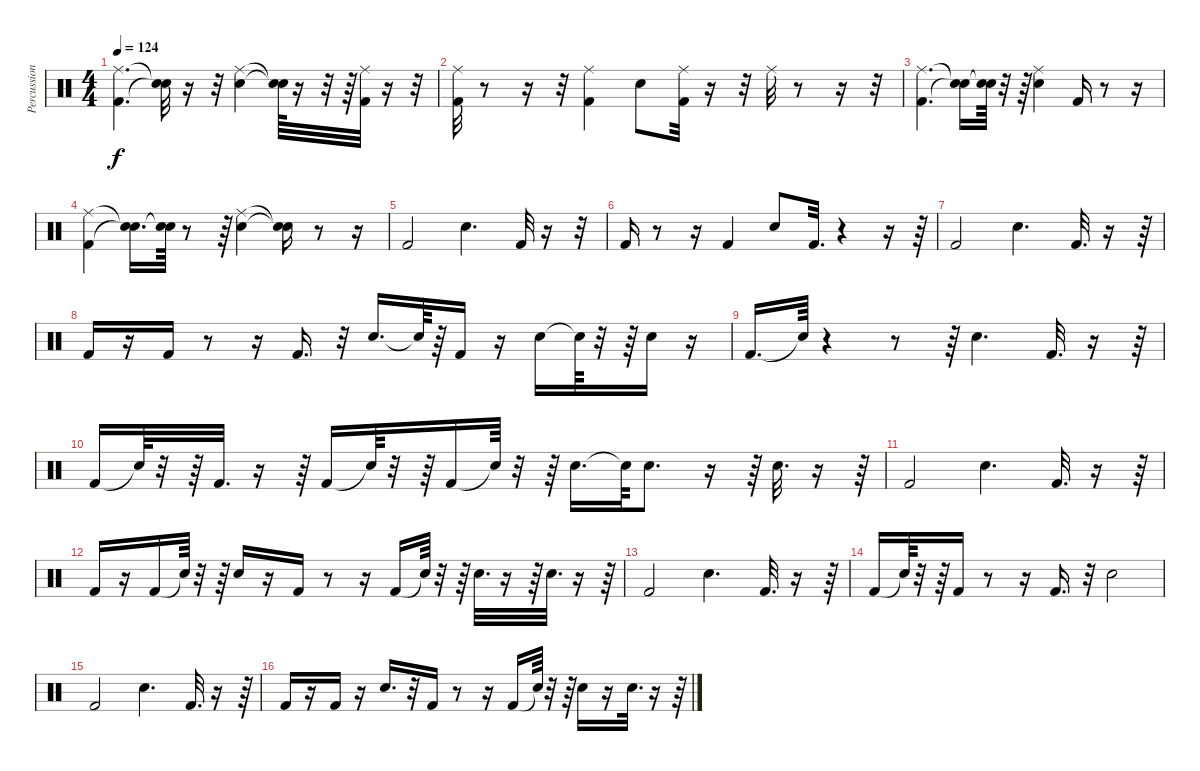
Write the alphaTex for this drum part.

\track ("Percussion" "Percussion") {instrument percussion}
\staff {score}
\articulation defaults
\ts (4 4)
\tempo 124
\clef neutral
\ks c
("Ride (middle)" "Kick (hit) 2").4{d dy f} ("Snare (hit)"{t} "Snare (hit)"{t}).32 r.16 r.32 ("Ride (middle)" "Electric Snare (hit)").4 ("Snare (hit)"{t} "Snare (hit)"{t}).64 r.16 r.32 r.64 ("Ride (middle)" "Kick (hit) 2").32 r.16 r.32 |
("Kick (hit) 2" "Ride (middle)").32 r.8 r.16 r.32 ("Kick (hit) 2" "Ride (middle)").4 "Electric Snare (hit)".8 ("Ride (middle)" "Kick (hit) 2").32 r.16 r.32 "Ride (middle)".32 r.8 r.16 r.32 |
("Ride (middle)" "Kick (hit) 2").4{d} ("Snare (hit)"{t} "Snare (hit)"{t}).16 ("Snare (hit)"{t} "Snare (hit)"{t}).64 r.32 r.64 ("Ride (middle)" "Electric Snare (hit)").4 "Kick (hit) 2".16 r.8 r.16 |
("Ride (middle)" "Kick (hit) 2").4 ("Snare (hit)"{t} "Snare (hit)"{t}).16{d} ("Snare (hit)"{t} "Snare (hit)"{t}).64 r.8 r.64 ("Ride (middle)" "Electric Snare (hit)").4 ("Snare (hit)"{t} "Snare (hit)"{t}).16 r.8 r.16 |
"Kick (hit) 2".2 "Electric Snare (hit)".4{d} "Kick (hit) 2".32 r.16 r.32 |
"Kick (hit) 2".16 r.8 r.16 "Kick (hit) 2".4 "Electric Snare (hit)".8 "Kick (hit) 2".32{d} r.4 r.16 r.64 |
"Kick (hit) 2".2 "Electric Snare (hit)".4{d} "Kick (hit) 2".32{d} r.16 r.64 |
"Kick (hit) 2".16 r.16 "Kick (hit) 2".16 r.8 r.16 "Kick (hit) 2".16{d} r.32 "Electric Snare (hit)".16{d} "Snare (hit)"{t}.64 r.64 "Kick (hit) 2".16 r.16 "Electric Snare (hit)".16 "Snare (hit)"{t}.64 r.32 r.64 "Electric Snare (hit)".16 r.16 |
"Kick (hit) 2".16{d} "Snare (hit)"{t}.64 r.4 r.8 r.64 "Electric Snare (hit)".4{d} "Kick (hit) 2".32{d} r.16 r.64 |
"Kick (hit) 2".16 "Snare (hit)"{t}.64 r.32 r.64 "Kick (hit) 2".32{d} r.16 r.64 "Kick (hit) 2".16 "Snare (hit)"{t}.64 r.32 r.64 "Kick (hit) 2".16 "Snare (hit)"{t}.64 r.32 r.64 "Electric Snare (hit)".16{d} "Snare (hit)"{t}.64 "Electric Snare (hit)".8{d} r.16 r.64 "Electric Snare (hit)".32{d} r.16 r.64 |
"Kick (hit) 2".2 "Electric Snare (hit)".4{d} "Kick (hit) 2".32{d} r.16 r.64 |
"Kick (hit) 2".16 r.16 "Kick (hit) 2".16 "Snare (hit)"{t}.64 r.32 r.64 "Electric Snare (hit)".16 r.16 "Kick (hit) 2".16 r.8 r.16 "Kick (hit) 2".16 "Snare (hit)"{t}.64 r.32 r.64 "Electric Snare (hit)".32{d} r.16 r.64 "Electric Snare (hit)".32{d} r.16 r.64 |
"Kick (hit) 2".2 "Electric Snare (hit)".4{d} "Kick (hit) 2".32{d} r.16 r.64 |
"Kick (hit) 2".16 "Snare (hit)"{t}.64 r.32 r.64 "Kick (hit) 2".16 r.8 r.16 "Kick (hit) 2".16{d} r.32 "Electric Snare (hit)".2 |
"Kick (hit) 2".2 "Electric Snare (hit)".4{d} "Kick (hit) 2".32{d} r.16 r.64 |
"Kick (hit) 2".16 r.16 "Kick (hit) 2".16 r.16 "Electric Snare (hit)".16{d} r.32 "Kick (hit) 2".16 r.8 r.16 "Kick (hit) 2".16 "Snare (hit)"{t}.64 r.32 r.64 "Electric Snare (hit)".16 r.16 "Electric Snare (hit)".32{d} r.16 r.64
